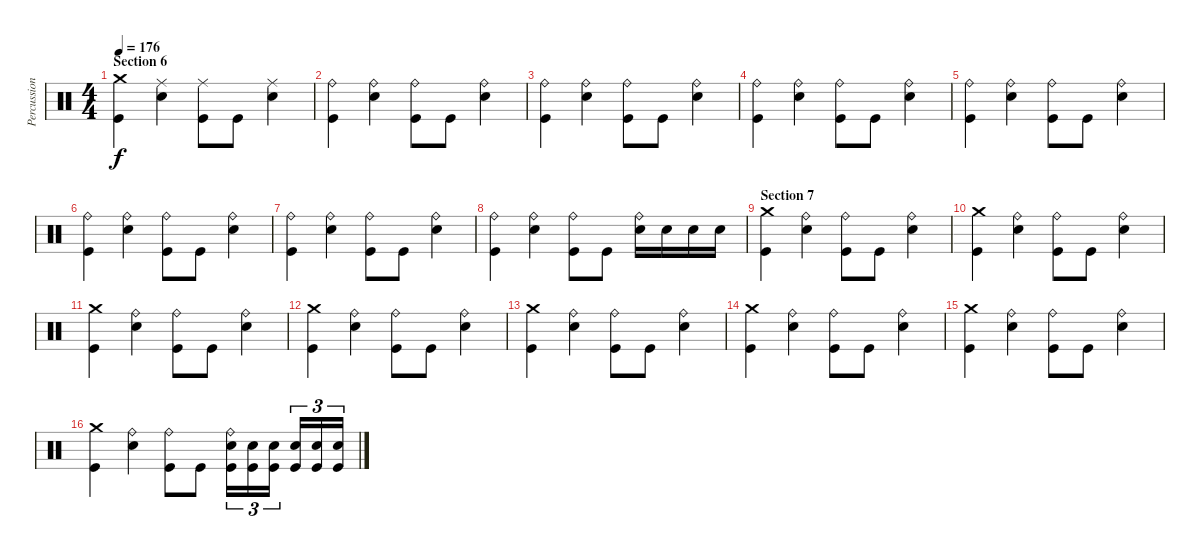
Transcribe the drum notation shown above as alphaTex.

\track ("Percussions" "Percussion") {instrument percussion}
\staff {score}
\articulation defaults
\ts (4 4)
\section ("" "Section 6")
\tempo 176
\clef neutral
\ks c
("Crash medium (hit)" "Kick (hit)").4{dy f} ("Ride (middle)" "Electric Snare (hit)").4 ("Ride (middle)" "Kick (hit)").8 "Kick (hit)".8 ("Ride (middle)" "Electric Snare (hit)").4 |
("Ride (bell)" "Kick (hit)").4 ("Ride (bell)" "Electric Snare (hit)").4 ("Ride (bell)" "Kick (hit)").8 "Kick (hit)".8 ("Ride (bell)" "Electric Snare (hit)").4 |
("Ride (bell)" "Kick (hit)").4 ("Ride (bell)" "Electric Snare (hit)").4 ("Ride (bell)" "Kick (hit)").8 "Kick (hit)".8 ("Ride (bell)" "Electric Snare (hit)").4 |
("Ride (bell)" "Kick (hit)").4 ("Ride (bell)" "Electric Snare (hit)").4 ("Ride (bell)" "Kick (hit)").8 "Kick (hit)".8 ("Ride (bell)" "Electric Snare (hit)").4 |
("Ride (bell)" "Kick (hit)").4 ("Ride (bell)" "Electric Snare (hit)").4 ("Ride (bell)" "Kick (hit)").8 "Kick (hit)".8 ("Ride (bell)" "Electric Snare (hit)").4 |
("Ride (bell)" "Kick (hit)").4 ("Ride (bell)" "Electric Snare (hit)").4 ("Ride (bell)" "Kick (hit)").8 "Kick (hit)".8 ("Ride (bell)" "Electric Snare (hit)").4 |
("Ride (bell)" "Kick (hit)").4 ("Ride (bell)" "Electric Snare (hit)").4 ("Ride (bell)" "Kick (hit)").8 "Kick (hit)".8 ("Ride (bell)" "Electric Snare (hit)").4 |
("Ride (bell)" "Kick (hit)").4 ("Ride (bell)" "Electric Snare (hit)").4 ("Ride (bell)" "Kick (hit)").8 "Kick (hit)".8 ("Ride (bell)" "Electric Snare (hit)").16 "Electric Snare (hit)".16 "Electric Snare (hit)".16 "Electric Snare (hit)".16 |
\section ("" "Section 7")
("Crash medium (hit)" "Kick (hit)").4 ("Ride (bell)" "Electric Snare (hit)").4 ("Ride (bell)" "Kick (hit)").8 "Kick (hit)".8 ("Ride (bell)" "Electric Snare (hit)").4 |
("Crash medium (hit)" "Kick (hit)").4 ("Ride (bell)" "Electric Snare (hit)").4 ("Ride (bell)" "Kick (hit)").8 "Kick (hit)".8 ("Ride (bell)" "Electric Snare (hit)").4 |
("Crash medium (hit)" "Kick (hit)").4 ("Ride (bell)" "Electric Snare (hit)").4 ("Ride (bell)" "Kick (hit)").8 "Kick (hit)".8 ("Ride (bell)" "Electric Snare (hit)").4 |
("Crash medium (hit)" "Kick (hit)").4 ("Ride (bell)" "Electric Snare (hit)").4 ("Ride (bell)" "Kick (hit)").8 "Kick (hit)".8 ("Ride (bell)" "Electric Snare (hit)").4 |
("Crash medium (hit)" "Kick (hit)").4 ("Ride (bell)" "Electric Snare (hit)").4 ("Ride (bell)" "Kick (hit)").8 "Kick (hit)".8 ("Ride (bell)" "Electric Snare (hit)").4 |
("Crash medium (hit)" "Kick (hit)").4 ("Ride (bell)" "Electric Snare (hit)").4 ("Ride (bell)" "Kick (hit)").8 "Kick (hit)".8 ("Ride (bell)" "Electric Snare (hit)").4 |
("Crash medium (hit)" "Kick (hit)").4 ("Ride (bell)" "Electric Snare (hit)").4 ("Ride (bell)" "Kick (hit)").8 "Kick (hit)".8 ("Ride (bell)" "Electric Snare (hit)").4 |
("Crash medium (hit)" "Kick (hit)").4 ("Ride (bell)" "Electric Snare (hit)").4 ("Ride (bell)" "Kick (hit)").8 "Kick (hit)".8 ("Ride (bell)" "Electric Snare (hit)" "Kick (hit)").16{tu (3 2)} ("Electric Snare (hit)" "Kick (hit)").16{tu (3 2)} ("Electric Snare (hit)" "Kick (hit)").16{tu (3 2)} ("Electric Snare (hit)" "Kick (hit)").16{tu (3 2)} ("Electric Snare (hit)" "Kick (hit)").16{tu (3 2)} ("Electric Snare (hit)" "Kick (hit)").16{tu (3 2)}
